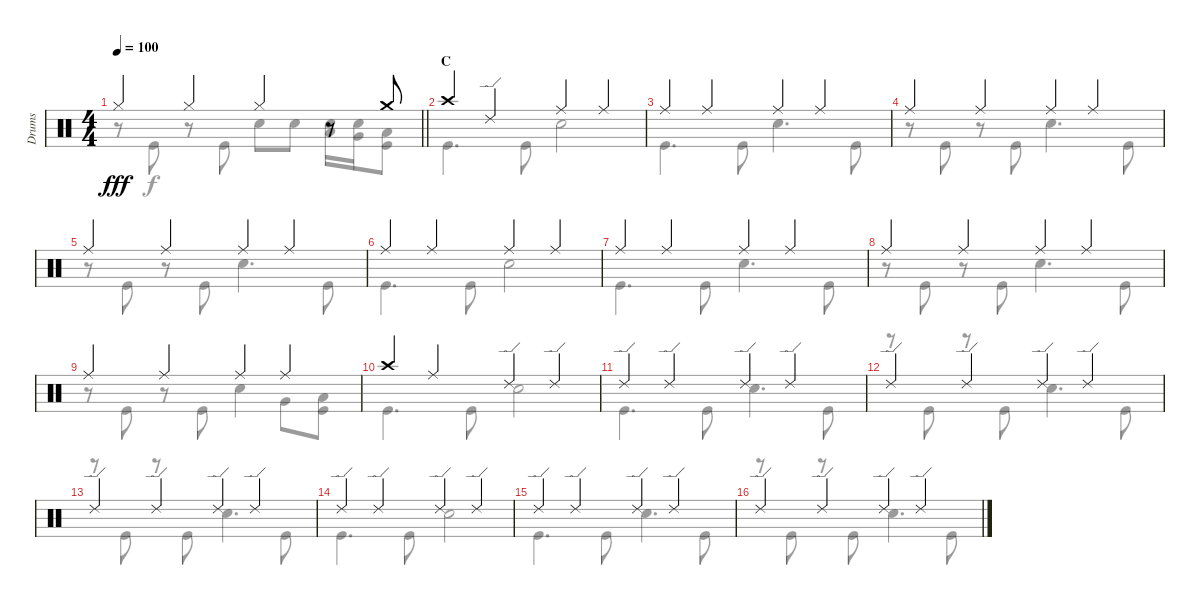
\track ("Drums" "Drums") {instrument percussion}
\staff {score}
\articulation defaults
\voice
\ts (4 4)
\tempo 100
\clef neutral
\barLineRight lightlight
\ks c "Hi-Hat (closed)".4{dy fff} "Hi-Hat (closed)".4 "Hi-Hat (closed)".4
r.8 "Crash medium (hit)".8 |
\section ("" "C")
"Crash high (hit)".4 "Ride (edge) 2".4 "Ride (middle)".4 "Ride (middle)".4 |
"Ride (middle)".4 "Ride (middle)".4 "Ride (middle)".4 "Ride (middle)".4 |
"Ride (middle)".4 "Ride (middle)".4 "Ride (middle)".4 "Ride (middle)".4 |
"Ride (middle)".4 "Ride (middle)".4 "Ride (middle)".4 "Ride (middle)".4 |
"Ride (middle)".4 "Ride (middle)".4 "Ride (middle)".4 "Ride (middle)".4 |
"Ride (middle)".4 "Ride (middle)".4 "Ride (middle)".4 "Ride (middle)".4 |
"Ride (middle)".4 "Ride (middle)".4 "Ride (middle)".4 "Ride (middle)".4 |
"Ride (middle)".4 "Ride (middle)".4 "Ride (middle)".4 "Ride (middle)".4 |
"Crash high (hit)".4 "Ride (middle)".4 "Ride (edge) 2".4 "Ride (edge) 2".4 |
"Ride (edge) 2".4 "Ride (edge) 2".4 "Ride (edge) 2".4 "Ride (edge) 2".4 |
"Ride (edge) 2".4 "Ride (edge) 2".4 "Ride (edge) 2".4 "Ride (edge) 2".4 |
"Ride (edge) 2".4 "Ride (edge) 2".4 "Ride (edge) 2".4 "Ride (edge) 2".4 |
"Ride (edge) 2".4 "Ride (edge) 2".4 "Ride (edge) 2".4 "Ride (edge) 2".4 |
"Ride (edge) 2".4 "Ride (edge) 2".4 "Ride (edge) 2".4 "Ride (edge) 2".4 |
"Ride (edge) 2".4 "Ride (edge) 2".4 "Ride (edge) 2".4 "Ride (edge) 2".4
\voice
\clef neutral
\ottava regular
\simile none
\barLineRight lightlight
\ks c
r.8{dy f} "Kick (hit)".8 r.8 "Kick (hit)".8 "Snare (hit) 2".8 "Snare (hit) 2".8 ("Snare (hit) 2" "Low Tom (hit)").16 ("Snare (hit) 2" "Very Low Tom (hit)").16 ("Low Floor Tom (hit)" "Kick (hit)").8 |
"Kick (hit)".4{d} "Kick (hit)".8 "Snare (hit) 2".2 |
"Kick (hit)".4{d} "Kick (hit)".8 "Snare (hit) 2".4{d} "Kick (hit)".8 |
r.8 "Kick (hit)".8 r.8 "Kick (hit)".8 "Snare (hit) 2".4{d} "Kick (hit)".8 |
r.8 "Kick (hit)".8 r.8 "Kick (hit)".8 "Snare (hit) 2".4{d} "Kick (hit)".8 |
"Kick (hit)".4{d} "Kick (hit)".8 "Snare (hit) 2".2 |
"Kick (hit)".4{d} "Kick (hit)".8 "Snare (hit) 2".4{d} "Kick (hit)".8 |
r.8 "Kick (hit)".8 r.8 "Kick (hit)".8 "Snare (hit) 2".4{d} "Kick (hit)".8 |
r.8 "Kick (hit)".8 r.8 "Kick (hit)".8 "Snare (hit) 2".4 "Very Low Tom (hit)".8 ("Low Floor Tom (hit)" "Kick (hit)").8 |
"Kick (hit)".4{d} "Kick (hit)".8 "Snare (hit) 2".2 |
"Kick (hit)".4{d} "Kick (hit)".8 "Snare (hit) 2".4{d} "Kick (hit)".8 |
r.8 "Kick (hit)".8 r.8 "Kick (hit)".8 "Snare (hit) 2".4{d} "Kick (hit)".8 |
r.8 "Kick (hit)".8 r.8 "Kick (hit)".8 "Snare (hit) 2".4{d} "Kick (hit)".8 |
"Kick (hit)".4{d} "Kick (hit)".8 "Snare (hit) 2".2 |
"Kick (hit)".4{d} "Kick (hit)".8 "Snare (hit) 2".4{d} "Kick (hit)".8 |
r.8 "Kick (hit)".8 r.8 "Kick (hit)".8 "Snare (hit) 2".4{d} "Kick (hit)".8
